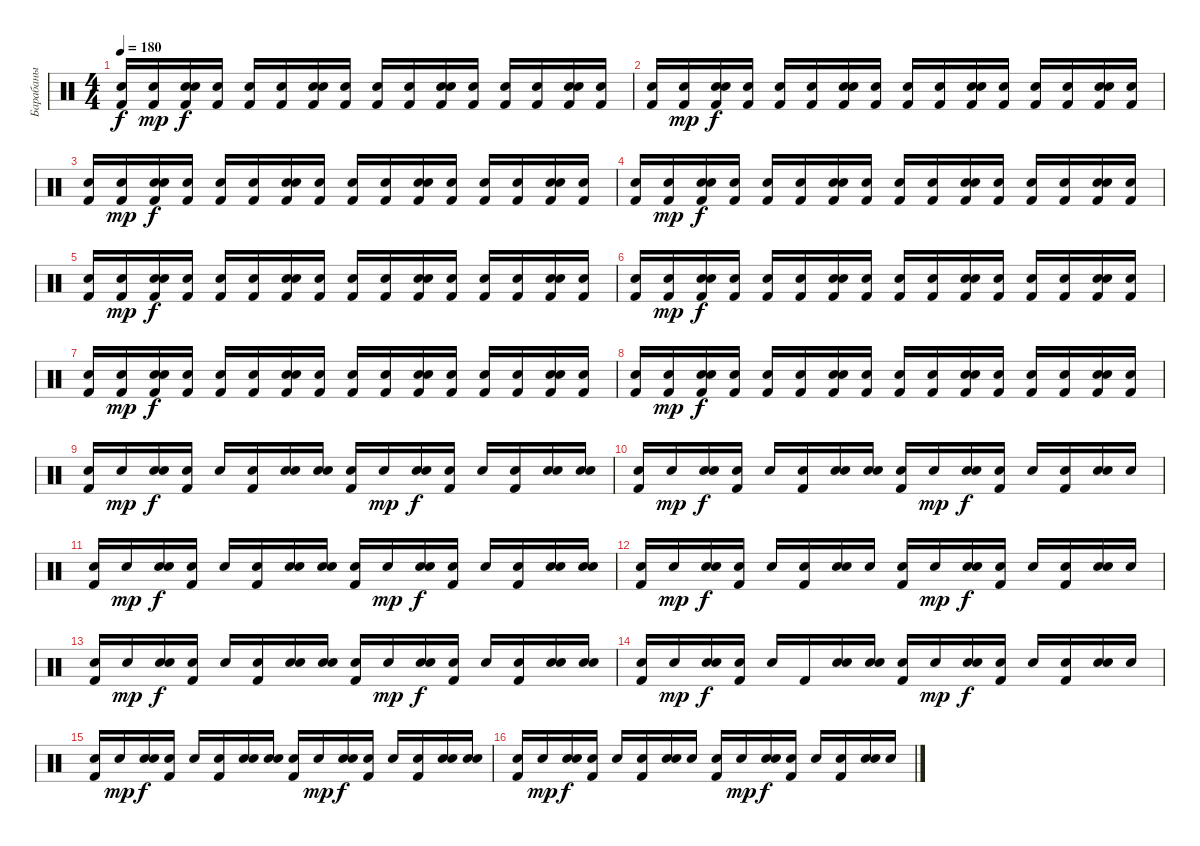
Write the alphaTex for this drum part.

\track ("Барабаны" "Барабаны") {instrument percussion}
\staff {score}
\articulation defaults
\ts (4 4)
\tempo 180
\clef neutral
\ks c
("Snare (hit)" "Kick (hit) 2").16{dy f} ("Snare (hit)" "Kick (hit) 2").16{dy mp} ("Snare (hit)" "Snare (hit) 2" "Kick (hit) 2").16{dy f} ("Snare (hit)" "Kick (hit) 2").16 ("Snare (hit)" "Kick (hit) 2").16 ("Snare (hit)" "Kick (hit) 2").16 ("Snare (hit)" "Snare (hit) 2" "Kick (hit) 2").16 ("Snare (hit)" "Kick (hit) 2").16 ("Snare (hit)" "Kick (hit) 2").16 ("Snare (hit)" "Kick (hit) 2").16 ("Snare (hit)" "Snare (hit) 2" "Kick (hit) 2").16 ("Snare (hit)" "Kick (hit) 2").16 ("Snare (hit)" "Kick (hit) 2").16 ("Snare (hit)" "Kick (hit) 2").16 ("Snare (hit)" "Snare (hit) 2" "Kick (hit) 2").16 ("Snare (hit)" "Kick (hit) 2").16 |
("Snare (hit)" "Kick (hit) 2").16 ("Snare (hit)" "Kick (hit) 2").16{dy mp} ("Snare (hit)" "Snare (hit) 2" "Kick (hit) 2").16{dy f} ("Snare (hit)" "Kick (hit) 2").16 ("Snare (hit)" "Kick (hit) 2").16 ("Snare (hit)" "Kick (hit) 2").16 ("Snare (hit)" "Snare (hit) 2" "Kick (hit) 2").16 ("Snare (hit)" "Kick (hit) 2").16 ("Snare (hit)" "Kick (hit) 2").16 ("Snare (hit)" "Kick (hit) 2").16 ("Snare (hit)" "Snare (hit) 2" "Kick (hit) 2").16 ("Snare (hit)" "Kick (hit) 2").16 ("Snare (hit)" "Kick (hit) 2").16 ("Snare (hit)" "Kick (hit) 2").16 ("Snare (hit)" "Snare (hit) 2" "Kick (hit) 2").16 ("Snare (hit)" "Kick (hit) 2").16 |
("Snare (hit)" "Kick (hit) 2").16 ("Snare (hit)" "Kick (hit) 2").16{dy mp} ("Snare (hit)" "Snare (hit) 2" "Kick (hit) 2").16{dy f} ("Snare (hit)" "Kick (hit) 2").16 ("Snare (hit)" "Kick (hit) 2").16 ("Snare (hit)" "Kick (hit) 2").16 ("Snare (hit)" "Snare (hit) 2" "Kick (hit) 2").16 ("Snare (hit)" "Kick (hit) 2").16 ("Snare (hit)" "Kick (hit) 2").16 ("Snare (hit)" "Kick (hit) 2").16 ("Snare (hit)" "Snare (hit) 2" "Kick (hit) 2").16 ("Snare (hit)" "Kick (hit) 2").16 ("Snare (hit)" "Kick (hit) 2").16 ("Snare (hit)" "Kick (hit) 2").16 ("Snare (hit)" "Snare (hit) 2" "Kick (hit) 2").16 ("Snare (hit)" "Kick (hit) 2").16 |
("Snare (hit)" "Kick (hit) 2").16 ("Snare (hit)" "Kick (hit) 2").16{dy mp} ("Snare (hit)" "Snare (hit) 2" "Kick (hit) 2").16{dy f} ("Snare (hit)" "Kick (hit) 2").16 ("Snare (hit)" "Kick (hit) 2").16 ("Snare (hit)" "Kick (hit) 2").16 ("Snare (hit)" "Snare (hit) 2" "Kick (hit) 2").16 ("Snare (hit)" "Kick (hit) 2").16 ("Snare (hit)" "Kick (hit) 2").16 ("Snare (hit)" "Kick (hit) 2").16 ("Snare (hit)" "Snare (hit) 2" "Kick (hit) 2").16 ("Snare (hit)" "Kick (hit) 2").16 ("Snare (hit)" "Kick (hit) 2").16 ("Snare (hit)" "Kick (hit) 2").16 ("Snare (hit)" "Snare (hit) 2" "Kick (hit) 2").16 ("Snare (hit)" "Kick (hit) 2").16 |
("Snare (hit)" "Kick (hit) 2").16 ("Snare (hit)" "Kick (hit) 2").16{dy mp} ("Snare (hit)" "Snare (hit) 2" "Kick (hit) 2").16{dy f} ("Snare (hit)" "Kick (hit) 2").16 ("Snare (hit)" "Kick (hit) 2").16 ("Snare (hit)" "Kick (hit) 2").16 ("Snare (hit)" "Snare (hit) 2" "Kick (hit) 2").16 ("Snare (hit)" "Kick (hit) 2").16 ("Snare (hit)" "Kick (hit) 2").16 ("Snare (hit)" "Kick (hit) 2").16 ("Snare (hit)" "Snare (hit) 2" "Kick (hit) 2").16 ("Snare (hit)" "Kick (hit) 2").16 ("Snare (hit)" "Kick (hit) 2").16 ("Snare (hit)" "Kick (hit) 2").16 ("Snare (hit)" "Snare (hit) 2" "Kick (hit) 2").16 ("Snare (hit)" "Kick (hit) 2").16 |
("Snare (hit)" "Kick (hit) 2").16 ("Snare (hit)" "Kick (hit) 2").16{dy mp} ("Snare (hit)" "Snare (hit) 2" "Kick (hit) 2").16{dy f} ("Snare (hit)" "Kick (hit) 2").16 ("Snare (hit)" "Kick (hit) 2").16 ("Snare (hit)" "Kick (hit) 2").16 ("Snare (hit)" "Snare (hit) 2" "Kick (hit) 2").16 ("Snare (hit)" "Kick (hit) 2").16 ("Snare (hit)" "Kick (hit) 2").16 ("Snare (hit)" "Kick (hit) 2").16 ("Snare (hit)" "Snare (hit) 2" "Kick (hit) 2").16 ("Snare (hit)" "Kick (hit) 2").16 ("Snare (hit)" "Kick (hit) 2").16 ("Snare (hit)" "Kick (hit) 2").16 ("Snare (hit)" "Snare (hit) 2" "Kick (hit) 2").16 ("Snare (hit)" "Kick (hit) 2").16 |
("Snare (hit)" "Kick (hit) 2").16 ("Snare (hit)" "Kick (hit) 2").16{dy mp} ("Snare (hit)" "Snare (hit) 2" "Kick (hit) 2").16{dy f} ("Snare (hit)" "Kick (hit) 2").16 ("Snare (hit)" "Kick (hit) 2").16 ("Snare (hit)" "Kick (hit) 2").16 ("Snare (hit)" "Snare (hit) 2" "Kick (hit) 2").16 ("Snare (hit)" "Kick (hit) 2").16 ("Snare (hit)" "Kick (hit) 2").16 ("Snare (hit)" "Kick (hit) 2").16 ("Snare (hit)" "Snare (hit) 2" "Kick (hit) 2").16 ("Snare (hit)" "Kick (hit) 2").16 ("Snare (hit)" "Kick (hit) 2").16 ("Snare (hit)" "Kick (hit) 2").16 ("Snare (hit)" "Snare (hit) 2" "Kick (hit) 2").16 ("Snare (hit)" "Kick (hit) 2").16 |
("Snare (hit)" "Kick (hit) 2").16 ("Snare (hit)" "Kick (hit) 2").16{dy mp} ("Snare (hit)" "Snare (hit) 2" "Kick (hit) 2").16{dy f} ("Snare (hit)" "Kick (hit) 2").16 ("Snare (hit)" "Kick (hit) 2").16 ("Snare (hit)" "Kick (hit) 2").16 ("Snare (hit)" "Snare (hit) 2" "Kick (hit) 2").16 ("Snare (hit)" "Kick (hit) 2").16 ("Snare (hit)" "Kick (hit) 2").16 ("Snare (hit)" "Kick (hit) 2").16 ("Snare (hit)" "Snare (hit) 2" "Kick (hit) 2").16 ("Snare (hit)" "Kick (hit) 2").16 ("Snare (hit)" "Kick (hit) 2").16 ("Snare (hit)" "Kick (hit) 2").16 ("Snare (hit)" "Snare (hit) 2" "Kick (hit) 2").16 ("Snare (hit)" "Kick (hit) 2").16 |
("Snare (hit)" "Kick (hit) 2").16 "Snare (hit)".16{dy mp} ("Snare (hit)" "Snare (hit) 2").16{dy f} ("Snare (hit)" "Kick (hit) 2").16 "Snare (hit)".16 ("Snare (hit)" "Kick (hit) 2").16 ("Snare (hit)" "Snare (hit) 2").16 ("Snare (hit)" "Snare (hit)").16 ("Snare (hit)" "Kick (hit) 2").16 "Snare (hit)".16{dy mp} ("Snare (hit)" "Snare (hit) 2").16{dy f} ("Snare (hit)" "Kick (hit) 2").16 "Snare (hit)".16 ("Snare (hit)" "Kick (hit) 2").16 ("Snare (hit)" "Snare (hit) 2").16 ("Snare (hit)" "Snare (hit)").16 |
("Snare (hit)" "Kick (hit) 2").16 "Snare (hit)".16{dy mp} ("Snare (hit)" "Snare (hit) 2").16{dy f} ("Snare (hit)" "Kick (hit) 2").16 "Snare (hit)".16 ("Snare (hit)" "Kick (hit) 2").16 ("Snare (hit)" "Snare (hit) 2").16 ("Snare (hit)" "Snare (hit)").16 ("Snare (hit)" "Kick (hit) 2").16 "Snare (hit)".16{dy mp} ("Snare (hit)" "Snare (hit) 2").16{dy f} ("Snare (hit)" "Kick (hit) 2").16 "Snare (hit)".16 ("Snare (hit)" "Kick (hit) 2").16 ("Snare (hit)" "Snare (hit) 2").16 "Snare (hit)".16 |
("Snare (hit)" "Kick (hit) 2").16 "Snare (hit)".16{dy mp} ("Snare (hit)" "Snare (hit) 2").16{dy f} ("Snare (hit)" "Kick (hit) 2").16 "Snare (hit)".16 ("Snare (hit)" "Kick (hit) 2").16 ("Snare (hit)" "Snare (hit) 2").16 ("Snare (hit)" "Snare (hit)").16 ("Snare (hit)" "Kick (hit) 2").16 "Snare (hit)".16{dy mp} ("Snare (hit)" "Snare (hit) 2").16{dy f} ("Snare (hit)" "Kick (hit) 2").16 "Snare (hit)".16 ("Snare (hit)" "Kick (hit) 2").16 ("Snare (hit)" "Snare (hit) 2").16 ("Snare (hit)" "Snare (hit)").16 |
("Snare (hit)" "Kick (hit) 2").16 "Snare (hit)".16{dy mp} ("Snare (hit)" "Snare (hit) 2").16{dy f} ("Snare (hit)" "Kick (hit) 2").16 "Snare (hit)".16 ("Snare (hit)" "Kick (hit) 2").16 ("Snare (hit)" "Snare (hit) 2").16 "Snare (hit)".16 ("Snare (hit)" "Kick (hit) 2").16 "Snare (hit)".16{dy mp} ("Snare (hit)" "Snare (hit) 2").16{dy f} ("Snare (hit)" "Kick (hit) 2").16 "Snare (hit)".16 ("Snare (hit)" "Kick (hit) 2").16 ("Snare (hit)" "Snare (hit) 2").16 "Snare (hit)".16 |
("Snare (hit)" "Kick (hit) 2").16 "Snare (hit)".16{dy mp} ("Snare (hit)" "Snare (hit) 2").16{dy f} ("Snare (hit)" "Kick (hit) 2").16 "Snare (hit)".16 ("Snare (hit)" "Kick (hit) 2").16 ("Snare (hit)" "Snare (hit) 2").16 ("Snare (hit)" "Snare (hit)").16 ("Snare (hit)" "Kick (hit) 2").16 "Snare (hit)".16{dy mp} ("Snare (hit)" "Snare (hit) 2").16{dy f} ("Snare (hit)" "Kick (hit) 2").16 "Snare (hit)".16 ("Snare (hit)" "Kick (hit) 2").16 ("Snare (hit)" "Snare (hit) 2").16 ("Snare (hit)" "Snare (hit)").16 |
("Snare (hit)" "Kick (hit) 2").16 "Snare (hit)".16{dy mp} ("Snare (hit)" "Snare (hit) 2").16{dy f} ("Snare (hit)" "Kick (hit) 2").16 "Snare (hit)".16 "Kick (hit) 2".16 ("Snare (hit)" "Snare (hit) 2").16 ("Snare (hit)" "Snare (hit)").16 ("Snare (hit)" "Kick (hit) 2").16 "Snare (hit)".16{dy mp} ("Snare (hit)" "Snare (hit) 2").16{dy f} ("Snare (hit)" "Kick (hit) 2").16 "Snare (hit)".16 ("Snare (hit)" "Kick (hit) 2").16 ("Snare (hit)" "Snare (hit) 2").16 "Snare (hit)".16 |
("Snare (hit)" "Kick (hit) 2").16 "Snare (hit)".16{dy mp} ("Snare (hit)" "Snare (hit) 2").16{dy f} ("Snare (hit)" "Kick (hit) 2").16 "Snare (hit)".16 ("Snare (hit)" "Kick (hit) 2").16 ("Snare (hit)" "Snare (hit) 2").16 ("Snare (hit)" "Snare (hit)").16 ("Snare (hit)" "Kick (hit) 2").16 "Snare (hit)".16{dy mp} ("Snare (hit)" "Snare (hit) 2").16{dy f} ("Snare (hit)" "Kick (hit) 2").16 "Snare (hit)".16 ("Snare (hit)" "Kick (hit) 2").16 ("Snare (hit)" "Snare (hit) 2").16 ("Snare (hit)" "Snare (hit)").16 |
("Snare (hit)" "Kick (hit) 2").16 "Snare (hit)".16{dy mp} ("Snare (hit)" "Snare (hit) 2").16{dy f} ("Snare (hit)" "Kick (hit) 2").16 "Snare (hit)".16 ("Snare (hit)" "Kick (hit) 2").16 ("Snare (hit)" "Snare (hit) 2").16 "Snare (hit)".16 ("Snare (hit)" "Kick (hit) 2").16 "Snare (hit)".16{dy mp} ("Snare (hit)" "Snare (hit) 2").16{dy f} ("Snare (hit)" "Kick (hit) 2").16 "Snare (hit)".16 ("Snare (hit)" "Kick (hit) 2").16 ("Snare (hit)" "Snare (hit) 2").16 "Snare (hit)".16
